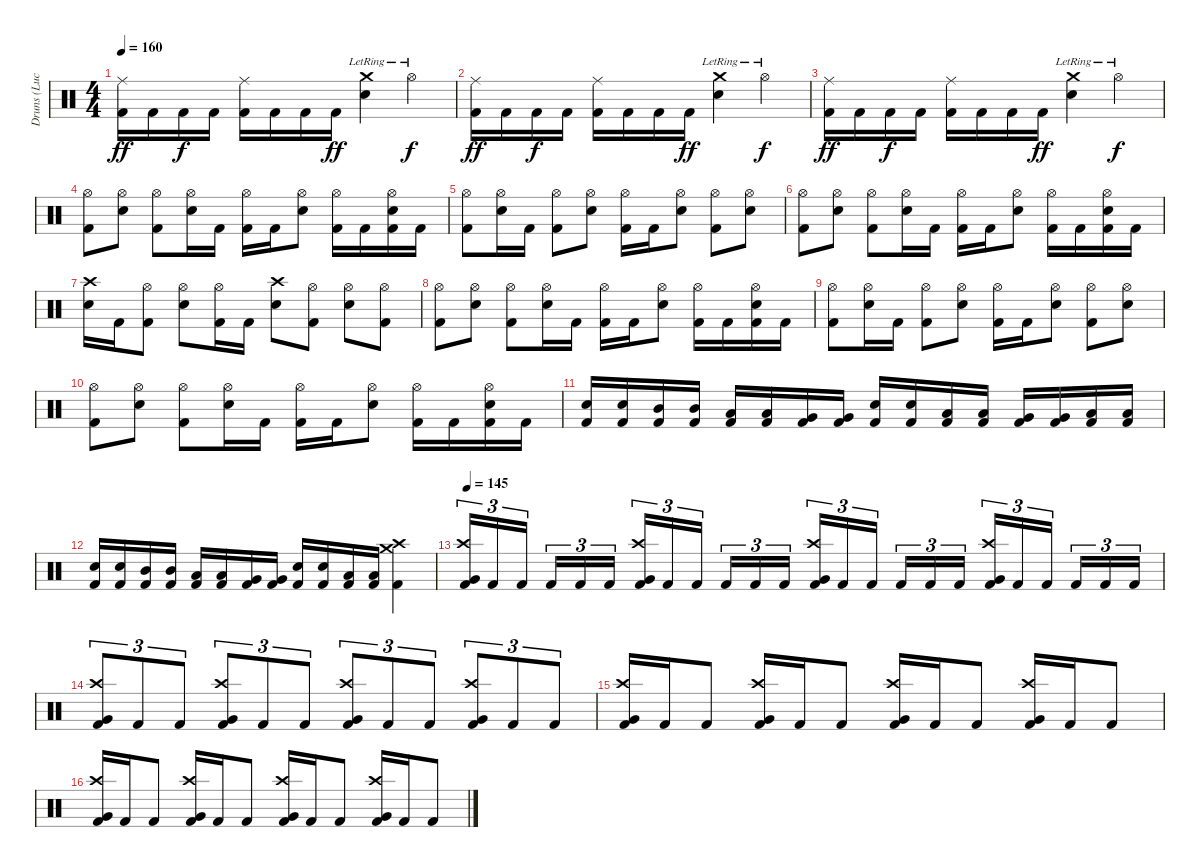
\track ("Druns (Lucas Zigarti)" "Druns (Luc") {instrument percussion}
\staff {score}
\articulation defaults
\ts (4 4)
\tempo 160
\clef neutral
\ks c
("Ride (middle)" "Kick (hit) 2").16{dy ff} "Kick (hit) 2".16 "Kick (hit) 2".16{dy f} "Kick (hit) 2".16 ("Ride (middle)" "Kick (hit) 2").16 "Kick (hit) 2".16 "Kick (hit) 2".16 "Kick (hit) 2".16{dy ff} ("Crash medium (hit)"{lr} "Snare (hit) 2").4 "Hi-Hat (open)"{lr}.4{dy f} |
("Ride (middle)" "Kick (hit) 2").16{dy ff} "Kick (hit) 2".16 "Kick (hit) 2".16{dy f} "Kick (hit) 2".16 ("Ride (middle)" "Kick (hit) 2").16 "Kick (hit) 2".16 "Kick (hit) 2".16 "Kick (hit) 2".16{dy ff} ("Crash medium (hit)"{lr} "Snare (hit) 2").4 "Hi-Hat (open)"{lr}.4{dy f} |
("Ride (middle)" "Kick (hit) 2").16{dy ff} "Kick (hit) 2".16 "Kick (hit) 2".16{dy f} "Kick (hit) 2".16 ("Ride (middle)" "Kick (hit) 2").16 "Kick (hit) 2".16 "Kick (hit) 2".16 "Kick (hit) 2".16{dy ff} ("Crash medium (hit)"{lr} "Snare (hit) 2").4 "Hi-Hat (open)"{lr}.4{dy f} |
("Kick (hit) 2" "Hi-Hat (open)").8 ("Snare (hit) 2" "Hi-Hat (open)").8 ("Kick (hit) 2" "Hi-Hat (open)").8 ("Snare (hit) 2" "Hi-Hat (open)").16 "Kick (hit) 2".16 ("Kick (hit) 2" "Hi-Hat (open)").16 "Kick (hit) 2".16 ("Snare (hit) 2" "Hi-Hat (open)").8 ("Kick (hit) 2" "Hi-Hat (open)").16 "Kick (hit) 2".16 ("Kick (hit) 2" "Snare (hit) 2" "Hi-Hat (open)").16 "Kick (hit) 2".16 |
("Kick (hit) 2" "Hi-Hat (open)").8 ("Snare (hit) 2" "Hi-Hat (open)").16 "Kick (hit) 2".16 ("Kick (hit) 2" "Hi-Hat (open)").8 ("Snare (hit) 2" "Hi-Hat (open)").8 ("Kick (hit) 2" "Hi-Hat (open)").16 "Kick (hit) 2".16 ("Snare (hit) 2" "Hi-Hat (open)").8 ("Kick (hit) 2" "Hi-Hat (open)").8 ("Snare (hit) 2" "Hi-Hat (open)").8 |
("Kick (hit) 2" "Hi-Hat (open)").8 ("Snare (hit) 2" "Hi-Hat (open)").8 ("Kick (hit) 2" "Hi-Hat (open)").8 ("Snare (hit) 2" "Hi-Hat (open)").16 "Kick (hit) 2".16 ("Kick (hit) 2" "Hi-Hat (open)").16 "Kick (hit) 2".16 ("Snare (hit) 2" "Hi-Hat (open)").8 ("Kick (hit) 2" "Hi-Hat (open)").16 "Kick (hit) 2".16 ("Kick (hit) 2" "Snare (hit) 2" "Hi-Hat (open)").16 "Kick (hit) 2".16 |
("Snare (hit) 2" "Crash high (hit)").16 "Kick (hit) 2".16 ("Kick (hit) 2" "Hi-Hat (open)").8 ("Snare (hit) 2" "Hi-Hat (open)").8 ("Kick (hit) 2" "Hi-Hat (open)").16 "Kick (hit) 2".16 ("Snare (hit) 2" "Crash high (hit)").8 ("Kick (hit) 2" "Hi-Hat (open)").8 ("Snare (hit) 2" "Hi-Hat (open)").8 ("Hi-Hat (open)" "Kick (hit) 2").8 |
("Kick (hit) 2" "Hi-Hat (open)").8 ("Snare (hit) 2" "Hi-Hat (open)").8 ("Kick (hit) 2" "Hi-Hat (open)").8 ("Snare (hit) 2" "Hi-Hat (open)").16 "Kick (hit) 2".16 ("Kick (hit) 2" "Hi-Hat (open)").16 "Kick (hit) 2".16 ("Snare (hit) 2" "Hi-Hat (open)").8 ("Kick (hit) 2" "Hi-Hat (open)").16 "Kick (hit) 2".16 ("Kick (hit) 2" "Snare (hit) 2" "Hi-Hat (open)").16 "Kick (hit) 2".16 |
("Kick (hit) 2" "Hi-Hat (open)").8 ("Snare (hit) 2" "Hi-Hat (open)").16 "Kick (hit) 2".16 ("Kick (hit) 2" "Hi-Hat (open)").8 ("Snare (hit) 2" "Hi-Hat (open)").8 ("Kick (hit) 2" "Hi-Hat (open)").16 "Kick (hit) 2".16 ("Snare (hit) 2" "Hi-Hat (open)").8 ("Kick (hit) 2" "Hi-Hat (open)").8 ("Snare (hit) 2" "Hi-Hat (open)").8 |
("Kick (hit) 2" "Hi-Hat (open)").8 ("Snare (hit) 2" "Hi-Hat (open)").8 ("Kick (hit) 2" "Hi-Hat (open)").8 ("Snare (hit) 2" "Hi-Hat (open)").16 "Kick (hit) 2".16 ("Kick (hit) 2" "Hi-Hat (open)").16 "Kick (hit) 2".16 ("Snare (hit) 2" "Hi-Hat (open)").8 ("Kick (hit) 2" "Hi-Hat (open)").16 "Kick (hit) 2".16 ("Kick (hit) 2" "Snare (hit) 2" "Hi-Hat (open)").16 "Kick (hit) 2".16 |
("Electric Snare (hit)" "Kick (hit) 2").16 ("Electric Snare (hit)" "Kick (hit) 2").16 ("Mid Tom (hit)" "Kick (hit) 2").16 ("Mid Tom (hit)" "Kick (hit) 2").16 ("Low Tom (hit)" "Kick (hit) 2").16 ("Low Tom (hit)" "Kick (hit) 2").16 ("Very Low Tom (hit)" "Kick (hit) 2").16 ("Very Low Tom (hit)" "Kick (hit) 2").16 ("Electric Snare (hit)" "Kick (hit) 2").16 ("Electric Snare (hit)" "Kick (hit) 2").16 ("Low Tom (hit)" "Kick (hit) 2").16 ("Low Tom (hit)" "Kick (hit) 2").16 ("Very Low Tom (hit)" "Kick (hit) 2").16 ("Very Low Tom (hit)" "Kick (hit) 2").16 ("Low Tom (hit)" "Kick (hit) 2").16 ("Low Tom (hit)" "Kick (hit) 2").16 |
("Electric Snare (hit)" "Kick (hit) 2").16 ("Electric Snare (hit)" "Kick (hit) 2").16 ("Mid Tom (hit)" "Kick (hit) 2").16 ("Mid Tom (hit)" "Kick (hit) 2").16 ("Low Tom (hit)" "Kick (hit) 2").16 ("Low Tom (hit)" "Kick (hit) 2").16 ("Very Low Tom (hit)" "Kick (hit) 2").16 ("Very Low Tom (hit)" "Kick (hit) 2").16 ("Electric Snare (hit)" "Kick (hit) 2").16 ("Electric Snare (hit)" "Kick (hit) 2").16 ("Low Tom (hit)" "Kick (hit) 2").16 ("Low Tom (hit)" "Kick (hit) 2").16 ("Crash high (hit)" "Crash medium (hit)" "Kick (hit) 2").4 |
\tempo 145
("Crash high (hit)" "Very Low Tom (hit)" "Kick (hit) 2").16{tu (3 2)} "Kick (hit) 2".16{tu (3 2)} "Kick (hit) 2".16{tu (3 2)} "Kick (hit) 2".16{tu (3 2)} "Kick (hit) 2".16{tu (3 2)} "Kick (hit) 2".16{tu (3 2)} ("Crash high (hit)" "Very Low Tom (hit)" "Kick (hit) 2").16{tu (3 2)} "Kick (hit) 2".16{tu (3 2)} "Kick (hit) 2".16{tu (3 2)} "Kick (hit) 2".16{tu (3 2)} "Kick (hit) 2".16{tu (3 2)} "Kick (hit) 2".16{tu (3 2)} ("Crash high (hit)" "Very Low Tom (hit)" "Kick (hit) 2").16{tu (3 2)} "Kick (hit) 2".16{tu (3 2)} "Kick (hit) 2".16{tu (3 2)} "Kick (hit) 2".16{tu (3 2)} "Kick (hit) 2".16{tu (3 2)} "Kick (hit) 2".16{tu (3 2)} ("Crash high (hit)" "Very Low Tom (hit)" "Kick (hit) 2").16{tu (3 2)} "Kick (hit) 2".16{tu (3 2)} "Kick (hit) 2".16{tu (3 2)} "Kick (hit) 2".16{tu (3 2)} "Kick (hit) 2".16{tu (3 2)} "Kick (hit) 2".16{tu (3 2)} |
("Crash high (hit)" "Very Low Tom (hit)" "Kick (hit) 2").8{tu (3 2)} "Kick (hit) 2".8{tu (3 2)} "Kick (hit) 2".8{tu (3 2)} ("Crash high (hit)" "Very Low Tom (hit)" "Kick (hit) 2").8{tu (3 2)} "Kick (hit) 2".8{tu (3 2)} "Kick (hit) 2".8{tu (3 2)} ("Crash high (hit)" "Very Low Tom (hit)" "Kick (hit) 2").8{tu (3 2)} "Kick (hit) 2".8{tu (3 2)} "Kick (hit) 2".8{tu (3 2)} ("Crash high (hit)" "Very Low Tom (hit)" "Kick (hit) 2").8{tu (3 2)} "Kick (hit) 2".8{tu (3 2)} "Kick (hit) 2".8{tu (3 2)} |
("Crash high (hit)" "Very Low Tom (hit)" "Kick (hit) 2").16 "Kick (hit) 2".16 "Kick (hit) 2".8 ("Crash high (hit)" "Very Low Tom (hit)" "Kick (hit) 2").16 "Kick (hit) 2".16 "Kick (hit) 2".8 ("Crash high (hit)" "Very Low Tom (hit)" "Kick (hit) 2").16 "Kick (hit) 2".16 "Kick (hit) 2".8 ("Crash high (hit)" "Very Low Tom (hit)" "Kick (hit) 2").16 "Kick (hit) 2".16 "Kick (hit) 2".8 |
("Crash high (hit)" "Very Low Tom (hit)" "Kick (hit) 2").16 "Kick (hit) 2".16 "Kick (hit) 2".8 ("Crash high (hit)" "Very Low Tom (hit)" "Kick (hit) 2").16 "Kick (hit) 2".16 "Kick (hit) 2".8 ("Crash high (hit)" "Very Low Tom (hit)" "Kick (hit) 2").16 "Kick (hit) 2".16 "Kick (hit) 2".8 ("Crash high (hit)" "Very Low Tom (hit)" "Kick (hit) 2").16 "Kick (hit) 2".16 "Kick (hit) 2".8
